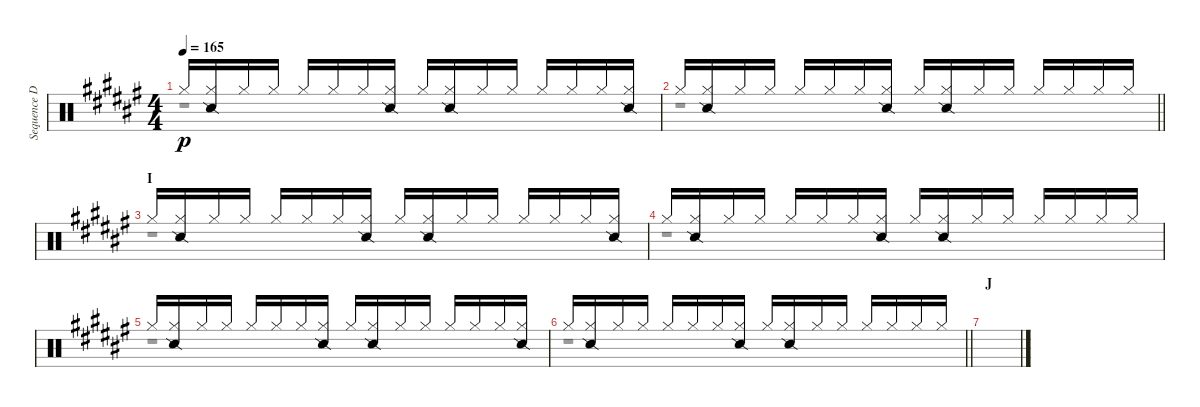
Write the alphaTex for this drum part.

\track ("Sequence Drums" "Sequence D") {instrument percussion}
\staff {score}
\articulation defaults
\voice
\ts (4 4)
\tempo 165
\clef neutral
\ks f# "Hi-Hat (closed)".16{dy p}
("Hi-Hat (closed)" "Snare (side stick) 2").16 "Hi-Hat (closed)".16 "Hi-Hat (closed)".16 "Hi-Hat (closed)".16 "Hi-Hat (closed)".16 "Hi-Hat (closed)".16 ("Hi-Hat (closed)" "Snare (side stick) 2").16 "Hi-Hat (closed)".16 ("Hi-Hat (closed)" "Snare (side stick) 2").16 "Hi-Hat (closed)".16 "Hi-Hat (closed)".16 "Hi-Hat (closed)".16 "Hi-Hat (closed)".16 "Hi-Hat (closed)".16 ("Hi-Hat (closed)" "Snare (side stick) 2").16 |
\barLineRight lightlight "Hi-Hat (closed)".16
("Hi-Hat (closed)" "Snare (side stick) 2").16 "Hi-Hat (closed)".16 "Hi-Hat (closed)".16 "Hi-Hat (closed)".16 "Hi-Hat (closed)".16 "Hi-Hat (closed)".16 ("Hi-Hat (closed)" "Snare (side stick) 2").16 "Hi-Hat (closed)".16 ("Hi-Hat (closed)" "Snare (side stick) 2").16 "Hi-Hat (closed)".16 "Hi-Hat (closed)".16 "Hi-Hat (closed)".16 "Hi-Hat (closed)".16 "Hi-Hat (closed)".16 "Hi-Hat (closed)".16 |
\section ("" "I")
"Hi-Hat (closed)".16 ("Hi-Hat (closed)" "Snare (side stick) 2").16 "Hi-Hat (closed)".16 "Hi-Hat (closed)".16 "Hi-Hat (closed)".16 "Hi-Hat (closed)".16 "Hi-Hat (closed)".16 ("Hi-Hat (closed)" "Snare (side stick) 2").16 "Hi-Hat (closed)".16 ("Hi-Hat (closed)" "Snare (side stick) 2").16 "Hi-Hat (closed)".16 "Hi-Hat (closed)".16 "Hi-Hat (closed)".16 "Hi-Hat (closed)".16 "Hi-Hat (closed)".16 ("Hi-Hat (closed)" "Snare (side stick) 2").16 |
"Hi-Hat (closed)".16 ("Hi-Hat (closed)" "Snare (side stick) 2").16 "Hi-Hat (closed)".16 "Hi-Hat (closed)".16 "Hi-Hat (closed)".16 "Hi-Hat (closed)".16 "Hi-Hat (closed)".16 ("Hi-Hat (closed)" "Snare (side stick) 2").16 "Hi-Hat (closed)".16 ("Hi-Hat (closed)" "Snare (side stick) 2").16 "Hi-Hat (closed)".16 "Hi-Hat (closed)".16 "Hi-Hat (closed)".16 "Hi-Hat (closed)".16 "Hi-Hat (closed)".16 "Hi-Hat (closed)".16 |
"Hi-Hat (closed)".16 ("Hi-Hat (closed)" "Snare (side stick) 2").16 "Hi-Hat (closed)".16 "Hi-Hat (closed)".16 "Hi-Hat (closed)".16 "Hi-Hat (closed)".16 "Hi-Hat (closed)".16 ("Hi-Hat (closed)" "Snare (side stick) 2").16 "Hi-Hat (closed)".16 ("Hi-Hat (closed)" "Snare (side stick) 2").16 "Hi-Hat (closed)".16 "Hi-Hat (closed)".16 "Hi-Hat (closed)".16 "Hi-Hat (closed)".16 "Hi-Hat (closed)".16 ("Hi-Hat (closed)" "Snare (side stick) 2").16 |
\barLineRight lightlight "Hi-Hat (closed)".16
("Hi-Hat (closed)" "Snare (side stick) 2").16 "Hi-Hat (closed)".16 "Hi-Hat (closed)".16 "Hi-Hat (closed)".16 "Hi-Hat (closed)".16 "Hi-Hat (closed)".16 ("Hi-Hat (closed)" "Snare (side stick) 2").16 "Hi-Hat (closed)".16 ("Hi-Hat (closed)" "Snare (side stick) 2").16 "Hi-Hat (closed)".16 "Hi-Hat (closed)".16 "Hi-Hat (closed)".16 "Hi-Hat (closed)".16 "Hi-Hat (closed)".16 "Hi-Hat (closed)".16 |
\section ("" "J")
|
|
|
|
|
|
|
|
|
\voice
\clef neutral
\ottava regular
\simile none
\ks f#
r.1{dy f} |
\barLineRight lightlight
r.1 |
r.1 |
r.1 |
r.1 |
\barLineRight lightlight
r.1 |
|
|
|
|
|
|
|
|
|
